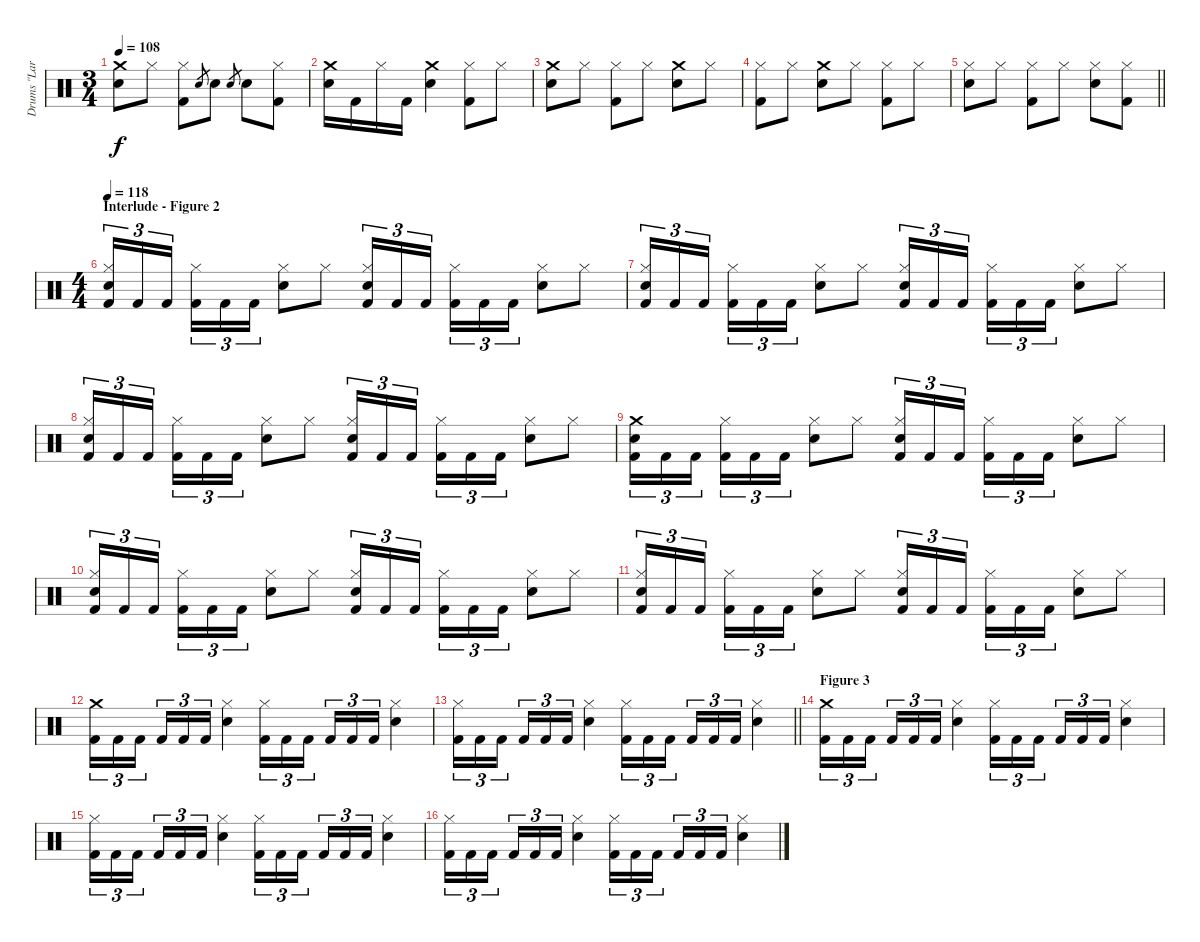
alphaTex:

\track ("Drums \"Lars Ulrich\"" "Drums \"Lar") {instrument percussion}
\staff {score}
\articulation defaults
\ts (3 4)
\tempo 108
\clef neutral
\ks c
("Crash medium (hit)" "Electric Snare (hit)").8{dy f} "Hi-Hat (closed)".8 ("Hi-Hat (closed)" "Kick (hit) 2").8 "Electric Snare (hit)".8{gr} "Electric Snare (hit)".8 "Electric Snare (hit)".8{gr} "Electric Snare (hit)".8 ("Hi-Hat (closed)" "Kick (hit) 2").8 |
("Crash medium (hit)" "Electric Snare (hit)").16 "Kick (hit) 2".16 "Hi-Hat (closed)".16 "Kick (hit) 2".16 ("Crash medium (hit)" "Electric Snare (hit)").4 ("Hi-Hat (closed)" "Kick (hit) 2").8 "Hi-Hat (closed)".8 |
("Crash medium (hit)" "Electric Snare (hit)").8 "Hi-Hat (closed)".8 ("Hi-Hat (closed)" "Kick (hit) 2").8 "Hi-Hat (closed)".8 ("Crash medium (hit)" "Electric Snare (hit)").8 "Hi-Hat (closed)".8 |
("Hi-Hat (closed)" "Kick (hit) 2").8 "Hi-Hat (closed)".8 ("Crash medium (hit)" "Electric Snare (hit)").8 "Hi-Hat (closed)".8 ("Hi-Hat (closed)" "Kick (hit) 2").8 "Hi-Hat (closed)".8 |
\barLineRight lightlight
("Hi-Hat (closed)" "Electric Snare (hit)").8 "Hi-Hat (closed)".8 ("Hi-Hat (closed)" "Kick (hit) 2").8 "Hi-Hat (closed)".8 ("Hi-Hat (closed)" "Electric Snare (hit)").8 ("Hi-Hat (closed)" "Kick (hit) 2").8 |
\ts (4 4)
\section ("" "Interlude - Figure 2")
\tempo 118
("Hi-Hat (closed)" "Electric Snare (hit)" "Kick (hit) 2").16{tu (3 2)} "Kick (hit) 2".16{tu (3 2)} "Kick (hit) 2".16{tu (3 2) beam splitsecondary} ("Hi-Hat (closed)" "Kick (hit) 2").16{tu (3 2)} "Kick (hit) 2".16{tu (3 2)} "Kick (hit) 2".16{tu (3 2)} ("Hi-Hat (closed)" "Electric Snare (hit)").8 "Hi-Hat (closed)".8 ("Hi-Hat (closed)" "Electric Snare (hit)" "Kick (hit) 2").16{tu (3 2)} "Kick (hit) 2".16{tu (3 2)} "Kick (hit) 2".16{tu (3 2) beam splitsecondary} ("Hi-Hat (closed)" "Kick (hit) 2").16{tu (3 2)} "Kick (hit) 2".16{tu (3 2)} "Kick (hit) 2".16{tu (3 2)} ("Hi-Hat (closed)" "Electric Snare (hit)").8 "Hi-Hat (closed)".8 |
("Hi-Hat (closed)" "Electric Snare (hit)" "Kick (hit) 2").16{tu (3 2)} "Kick (hit) 2".16{tu (3 2)} "Kick (hit) 2".16{tu (3 2) beam splitsecondary} ("Hi-Hat (closed)" "Kick (hit) 2").16{tu (3 2)} "Kick (hit) 2".16{tu (3 2)} "Kick (hit) 2".16{tu (3 2)} ("Hi-Hat (closed)" "Electric Snare (hit)").8 "Hi-Hat (closed)".8 ("Hi-Hat (closed)" "Electric Snare (hit)" "Kick (hit) 2").16{tu (3 2)} "Kick (hit) 2".16{tu (3 2)} "Kick (hit) 2".16{tu (3 2) beam splitsecondary} ("Hi-Hat (closed)" "Kick (hit) 2").16{tu (3 2)} "Kick (hit) 2".16{tu (3 2)} "Kick (hit) 2".16{tu (3 2)} ("Hi-Hat (closed)" "Electric Snare (hit)").8 "Hi-Hat (closed)".8 |
("Hi-Hat (closed)" "Electric Snare (hit)" "Kick (hit) 2").16{tu (3 2)} "Kick (hit) 2".16{tu (3 2)} "Kick (hit) 2".16{tu (3 2) beam splitsecondary} ("Hi-Hat (closed)" "Kick (hit) 2").16{tu (3 2)} "Kick (hit) 2".16{tu (3 2)} "Kick (hit) 2".16{tu (3 2)} ("Hi-Hat (closed)" "Electric Snare (hit)").8 "Hi-Hat (closed)".8 ("Hi-Hat (closed)" "Electric Snare (hit)" "Kick (hit) 2").16{tu (3 2)} "Kick (hit) 2".16{tu (3 2)} "Kick (hit) 2".16{tu (3 2) beam splitsecondary} ("Hi-Hat (closed)" "Kick (hit) 2").16{tu (3 2)} "Kick (hit) 2".16{tu (3 2)} "Kick (hit) 2".16{tu (3 2)} ("Hi-Hat (closed)" "Electric Snare (hit)").8 "Hi-Hat (closed)".8 |
("Crash medium (hit)" "Electric Snare (hit)" "Kick (hit) 2").16{tu (3 2)} "Kick (hit) 2".16{tu (3 2)} "Kick (hit) 2".16{tu (3 2) beam splitsecondary} ("Hi-Hat (closed)" "Kick (hit) 2").16{tu (3 2)} "Kick (hit) 2".16{tu (3 2)} "Kick (hit) 2".16{tu (3 2)} ("Hi-Hat (closed)" "Electric Snare (hit)").8 "Hi-Hat (closed)".8 ("Hi-Hat (closed)" "Electric Snare (hit)" "Kick (hit) 2").16{tu (3 2)} "Kick (hit) 2".16{tu (3 2)} "Kick (hit) 2".16{tu (3 2) beam splitsecondary} ("Hi-Hat (closed)" "Kick (hit) 2").16{tu (3 2)} "Kick (hit) 2".16{tu (3 2)} "Kick (hit) 2".16{tu (3 2)} ("Hi-Hat (closed)" "Electric Snare (hit)").8 "Hi-Hat (closed)".8 |
("Hi-Hat (closed)" "Electric Snare (hit)" "Kick (hit) 2").16{tu (3 2)} "Kick (hit) 2".16{tu (3 2)} "Kick (hit) 2".16{tu (3 2) beam splitsecondary} ("Hi-Hat (closed)" "Kick (hit) 2").16{tu (3 2)} "Kick (hit) 2".16{tu (3 2)} "Kick (hit) 2".16{tu (3 2)} ("Hi-Hat (closed)" "Electric Snare (hit)").8 "Hi-Hat (closed)".8 ("Hi-Hat (closed)" "Electric Snare (hit)" "Kick (hit) 2").16{tu (3 2)} "Kick (hit) 2".16{tu (3 2)} "Kick (hit) 2".16{tu (3 2) beam splitsecondary} ("Hi-Hat (closed)" "Kick (hit) 2").16{tu (3 2)} "Kick (hit) 2".16{tu (3 2)} "Kick (hit) 2".16{tu (3 2)} ("Hi-Hat (closed)" "Electric Snare (hit)").8 "Hi-Hat (closed)".8 |
("Hi-Hat (closed)" "Electric Snare (hit)" "Kick (hit) 2").16{tu (3 2)} "Kick (hit) 2".16{tu (3 2)} "Kick (hit) 2".16{tu (3 2) beam splitsecondary} ("Hi-Hat (closed)" "Kick (hit) 2").16{tu (3 2)} "Kick (hit) 2".16{tu (3 2)} "Kick (hit) 2".16{tu (3 2)} ("Hi-Hat (closed)" "Electric Snare (hit)").8 "Hi-Hat (closed)".8 ("Hi-Hat (closed)" "Electric Snare (hit)" "Kick (hit) 2").16{tu (3 2)} "Kick (hit) 2".16{tu (3 2)} "Kick (hit) 2".16{tu (3 2) beam splitsecondary} ("Hi-Hat (closed)" "Kick (hit) 2").16{tu (3 2)} "Kick (hit) 2".16{tu (3 2)} "Kick (hit) 2".16{tu (3 2)} ("Hi-Hat (closed)" "Electric Snare (hit)").8 "Hi-Hat (closed)".8 |
("Crash medium (hit)" "Kick (hit) 2").16{tu (3 2)} "Kick (hit) 2".16{tu (3 2)} "Kick (hit) 2".16{tu (3 2) beam splitsecondary} "Kick (hit) 2".16{tu (3 2)} "Kick (hit) 2".16{tu (3 2)} "Kick (hit) 2".16{tu (3 2)} ("Hi-Hat (closed)" "Electric Snare (hit)").4 ("Hi-Hat (closed)" "Kick (hit) 2").16{tu (3 2)} "Kick (hit) 2".16{tu (3 2)} "Kick (hit) 2".16{tu (3 2) beam splitsecondary} "Kick (hit) 2".16{tu (3 2)} "Kick (hit) 2".16{tu (3 2)} "Kick (hit) 2".16{tu (3 2)} ("Hi-Hat (closed)" "Electric Snare (hit)").4 |
\barLineRight lightlight
("Hi-Hat (closed)" "Kick (hit) 2").16{tu (3 2)} "Kick (hit) 2".16{tu (3 2)} "Kick (hit) 2".16{tu (3 2) beam splitsecondary} "Kick (hit) 2".16{tu (3 2)} "Kick (hit) 2".16{tu (3 2)} "Kick (hit) 2".16{tu (3 2)} ("Hi-Hat (closed)" "Electric Snare (hit)").4 ("Hi-Hat (closed)" "Kick (hit) 2").16{tu (3 2)} "Kick (hit) 2".16{tu (3 2)} "Kick (hit) 2".16{tu (3 2) beam splitsecondary} "Kick (hit) 2".16{tu (3 2)} "Kick (hit) 2".16{tu (3 2)} "Kick (hit) 2".16{tu (3 2)} ("Hi-Hat (closed)" "Electric Snare (hit)").4 |
\section ("" "Figure 3")
("Crash medium (hit)" "Kick (hit) 2").16{tu (3 2)} "Kick (hit) 2".16{tu (3 2)} "Kick (hit) 2".16{tu (3 2) beam splitsecondary} "Kick (hit) 2".16{tu (3 2)} "Kick (hit) 2".16{tu (3 2)} "Kick (hit) 2".16{tu (3 2)} ("Hi-Hat (closed)" "Electric Snare (hit)").4 ("Hi-Hat (closed)" "Kick (hit) 2").16{tu (3 2)} "Kick (hit) 2".16{tu (3 2)} "Kick (hit) 2".16{tu (3 2) beam splitsecondary} "Kick (hit) 2".16{tu (3 2)} "Kick (hit) 2".16{tu (3 2)} "Kick (hit) 2".16{tu (3 2)} ("Hi-Hat (closed)" "Electric Snare (hit)").4 |
("Hi-Hat (closed)" "Kick (hit) 2").16{tu (3 2)} "Kick (hit) 2".16{tu (3 2)} "Kick (hit) 2".16{tu (3 2) beam splitsecondary} "Kick (hit) 2".16{tu (3 2)} "Kick (hit) 2".16{tu (3 2)} "Kick (hit) 2".16{tu (3 2)} ("Hi-Hat (closed)" "Electric Snare (hit)").4 ("Hi-Hat (closed)" "Kick (hit) 2").16{tu (3 2)} "Kick (hit) 2".16{tu (3 2)} "Kick (hit) 2".16{tu (3 2) beam splitsecondary} "Kick (hit) 2".16{tu (3 2)} "Kick (hit) 2".16{tu (3 2)} "Kick (hit) 2".16{tu (3 2)} ("Hi-Hat (closed)" "Electric Snare (hit)").4 |
("Hi-Hat (closed)" "Kick (hit) 2").16{tu (3 2)} "Kick (hit) 2".16{tu (3 2)} "Kick (hit) 2".16{tu (3 2) beam splitsecondary} "Kick (hit) 2".16{tu (3 2)} "Kick (hit) 2".16{tu (3 2)} "Kick (hit) 2".16{tu (3 2)} ("Hi-Hat (closed)" "Electric Snare (hit)").4 ("Hi-Hat (closed)" "Kick (hit) 2").16{tu (3 2)} "Kick (hit) 2".16{tu (3 2)} "Kick (hit) 2".16{tu (3 2) beam splitsecondary} "Kick (hit) 2".16{tu (3 2)} "Kick (hit) 2".16{tu (3 2)} "Kick (hit) 2".16{tu (3 2)} ("Hi-Hat (closed)" "Electric Snare (hit)").4
